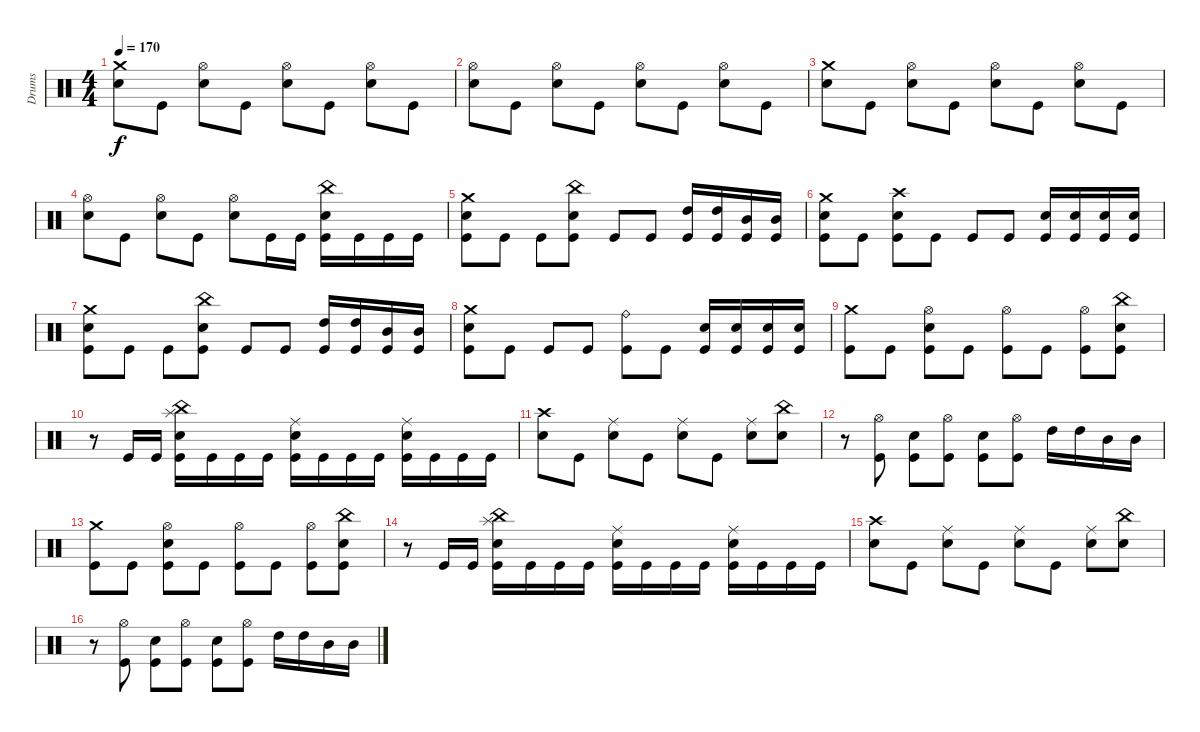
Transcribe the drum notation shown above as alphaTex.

\track ("Drums" "Drums") {instrument percussion}
\staff {score}
\articulation defaults
\ts (4 4)
\tempo 170
\clef neutral
\ks c
("Crash medium (hit)" "Electric Snare (hit)").8{dy f} "Kick (hit)".8 ("Hi-Hat (open)" "Electric Snare (hit)").8 "Kick (hit)".8 ("Hi-Hat (open)" "Electric Snare (hit)").8 "Kick (hit)".8 ("Hi-Hat (open)" "Electric Snare (hit)").8 "Kick (hit)".8 |
("Hi-Hat (open)" "Electric Snare (hit)").8 "Kick (hit)".8 ("Hi-Hat (open)" "Electric Snare (hit)").8 "Kick (hit)".8 ("Hi-Hat (open)" "Electric Snare (hit)").8 "Kick (hit)".8 ("Hi-Hat (open)" "Electric Snare (hit)").8 "Kick (hit)".8 |
("Crash medium (hit)" "Electric Snare (hit)").8 "Kick (hit)".8 ("Hi-Hat (open)" "Electric Snare (hit)").8 "Kick (hit)".8 ("Hi-Hat (open)" "Electric Snare (hit)").8 "Kick (hit)".8 ("Hi-Hat (open)" "Electric Snare (hit)").8 "Kick (hit)".8 |
("Hi-Hat (open)" "Electric Snare (hit)").8 "Kick (hit)".8 ("Hi-Hat (open)" "Electric Snare (hit)").8 "Kick (hit)".8 ("Hi-Hat (open)" "Electric Snare (hit)").8 "Kick (hit)".16 "Kick (hit)".16 ("China (hit)" "Electric Snare (hit)" "Kick (hit)").16 "Kick (hit)".16 "Kick (hit)".16 "Kick (hit)".16 |
("Crash medium (hit)" "Electric Snare (hit)" "Kick (hit)").8 "Kick (hit)".8 "Kick (hit)".8 ("China (hit)" "Electric Snare (hit)" "Kick (hit)").8 "Kick (hit)".8 "Kick (hit)".8 ("High Tom (hit)" "Kick (hit)").16 ("High Tom (hit)" "Kick (hit)").16 ("Mid Tom (hit)" "Kick (hit)").16 ("Mid Tom (hit)" "Kick (hit)").16 |
("Crash medium (hit)" "Electric Snare (hit)" "Kick (hit)").8 "Kick (hit)".8 ("Crash high (hit)" "Electric Snare (hit)" "Kick (hit)").8 "Kick (hit)".8 "Kick (hit)".8 "Kick (hit)".8 ("Electric Snare (hit)" "Kick (hit)").16 ("Electric Snare (hit)" "Kick (hit)").16 ("Electric Snare (hit)" "Kick (hit)").16 ("Electric Snare (hit)" "Kick (hit)").16 |
("Crash medium (hit)" "Electric Snare (hit)" "Kick (hit)").8 "Kick (hit)".8 "Kick (hit)".8 ("China (hit)" "Electric Snare (hit)" "Kick (hit)").8 "Kick (hit)".8 "Kick (hit)".8 ("High Tom (hit)" "Kick (hit)").16 ("High Tom (hit)" "Kick (hit)").16 ("Mid Tom (hit)" "Kick (hit)").16 ("Mid Tom (hit)" "Kick (hit)").16 |
("Crash medium (hit)" "Electric Snare (hit)" "Kick (hit)").8 "Kick (hit)".8 "Kick (hit)".8 "Kick (hit)".8 ("Ride (bell)" "Kick (hit)").8 "Kick (hit)".8 ("Electric Snare (hit)" "Kick (hit)").16 ("Electric Snare (hit)" "Kick (hit)").16 ("Electric Snare (hit)" "Kick (hit)").16 ("Electric Snare (hit)" "Kick (hit)").16 |
("Crash medium (hit)" "Kick (hit)").8 "Kick (hit)".8 ("Hi-Hat (open)" "Electric Snare (hit)" "Kick (hit)").8 "Kick (hit)".8 ("Hi-Hat (open)" "Kick (hit)").8 "Kick (hit)".8 ("Hi-Hat (open)" "Kick (hit)").8 ("China (hit)" "Electric Snare (hit)" "Kick (hit)").8 |
r.8 "Kick (hit)".16 "Kick (hit)".16 ("Splash (hit)" "China (hit)" "Electric Snare (hit)" "Kick (hit)").16 "Kick (hit)".16 "Kick (hit)".16 "Kick (hit)".16 ("Ride (middle)" "Electric Snare (hit)" "Kick (hit)").16 "Kick (hit)".16 "Kick (hit)".16 "Kick (hit)".16 ("Ride (middle)" "Electric Snare (hit)" "Kick (hit)").16 "Kick (hit)".16 "Kick (hit)".16 "Kick (hit)".16 |
("Crash high (hit)" "Electric Snare (hit)").8 "Kick (hit)".8 ("Ride (middle)" "Electric Snare (hit)").8 "Kick (hit)".8 ("Ride (middle)" "Electric Snare (hit)").8 "Kick (hit)".8 ("Ride (middle)" "Electric Snare (hit)").8 ("China (hit)" "Electric Snare (hit)").8 |
r.8 ("Hi-Hat (open)" "Kick (hit)").8 ("Electric Snare (hit)" "Kick (hit)").8 ("Hi-Hat (open)" "Kick (hit)").8 ("Electric Snare (hit)" "Kick (hit)").8 ("Hi-Hat (open)" "Kick (hit)").8 "High Tom (hit)".16 "High Tom (hit)".16 "Mid Tom (hit)".16 "Mid Tom (hit)".16 |
("Crash medium (hit)" "Kick (hit)").8 "Kick (hit)".8 ("Hi-Hat (open)" "Electric Snare (hit)" "Kick (hit)").8 "Kick (hit)".8 ("Hi-Hat (open)" "Kick (hit)").8 "Kick (hit)".8 ("Hi-Hat (open)" "Kick (hit)").8 ("China (hit)" "Electric Snare (hit)" "Kick (hit)").8 |
r.8 "Kick (hit)".16 "Kick (hit)".16 ("Splash (hit)" "China (hit)" "Electric Snare (hit)" "Kick (hit)").16 "Kick (hit)".16 "Kick (hit)".16 "Kick (hit)".16 ("Ride (middle)" "Electric Snare (hit)" "Kick (hit)").16 "Kick (hit)".16 "Kick (hit)".16 "Kick (hit)".16 ("Ride (middle)" "Electric Snare (hit)" "Kick (hit)").16 "Kick (hit)".16 "Kick (hit)".16 "Kick (hit)".16 |
("Crash high (hit)" "Electric Snare (hit)").8 "Kick (hit)".8 ("Ride (middle)" "Electric Snare (hit)").8 "Kick (hit)".8 ("Ride (middle)" "Electric Snare (hit)").8 "Kick (hit)".8 ("Ride (middle)" "Electric Snare (hit)").8 ("China (hit)" "Electric Snare (hit)").8 |
r.8 ("Hi-Hat (open)" "Kick (hit)").8 ("Electric Snare (hit)" "Kick (hit)").8 ("Hi-Hat (open)" "Kick (hit)").8 ("Electric Snare (hit)" "Kick (hit)").8 ("Hi-Hat (open)" "Kick (hit)").8 "High Tom (hit)".16 "High Tom (hit)".16 "Mid Tom (hit)".16 "Mid Tom (hit)".16
